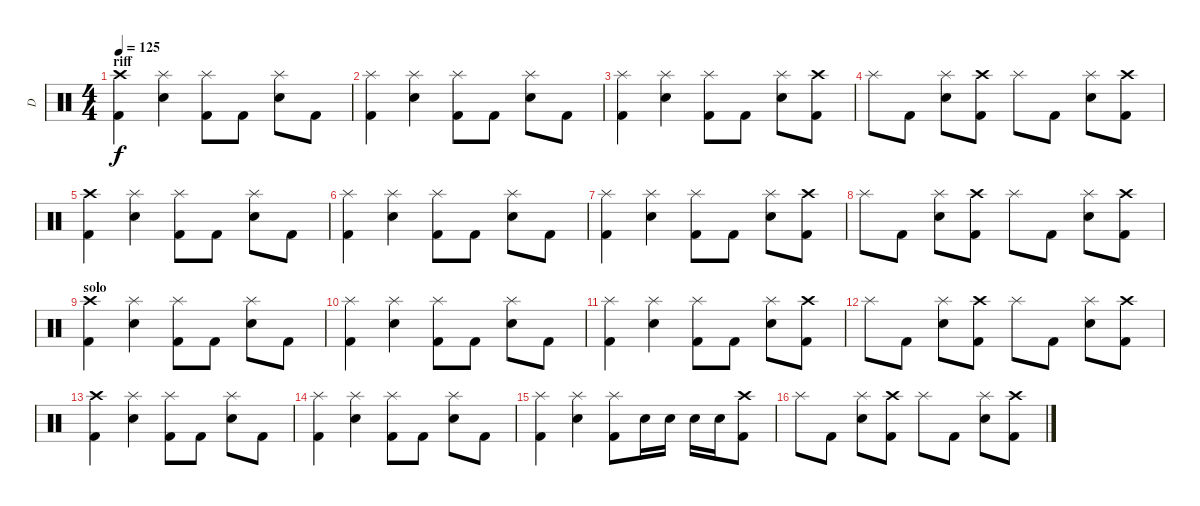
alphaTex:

\track ("D" "D") {instrument percussion}
\staff {score}
\articulation defaults
\ts (4 4)
\section ("" "riff")
\tempo 125
\clef neutral
\ks c
("Crash high (hit)" "Kick (hit) 2").4{dy f} ("Splash (hit)" "Electric Snare (hit)").4 ("Splash (hit)" "Kick (hit) 2").8 "Kick (hit) 2".8 ("Splash (hit)" "Electric Snare (hit)").8 "Kick (hit) 2".8 |
("Splash (hit)" "Kick (hit) 2").4 ("Splash (hit)" "Electric Snare (hit)").4 ("Splash (hit)" "Kick (hit) 2").8 "Kick (hit) 2".8 ("Splash (hit)" "Electric Snare (hit)").8 "Kick (hit) 2".8 |
("Splash (hit)" "Kick (hit) 2").4 ("Splash (hit)" "Electric Snare (hit)").4 ("Splash (hit)" "Kick (hit) 2").8 "Kick (hit) 2".8 ("Splash (hit)" "Electric Snare (hit)").8 ("Crash high (hit)" "Kick (hit) 2").8 |
"Splash (hit)".8 "Kick (hit) 2".8 ("Splash (hit)" "Electric Snare (hit)").8 ("Crash high (hit)" "Kick (hit) 2").8 "Splash (hit)".8 "Kick (hit) 2".8 ("Splash (hit)" "Electric Snare (hit)").8 ("Crash high (hit)" "Kick (hit) 2").8 |
("Crash high (hit)" "Kick (hit) 2").4 ("Splash (hit)" "Electric Snare (hit)").4 ("Splash (hit)" "Kick (hit) 2").8 "Kick (hit) 2".8 ("Splash (hit)" "Electric Snare (hit)").8 "Kick (hit) 2".8 |
("Splash (hit)" "Kick (hit) 2").4 ("Splash (hit)" "Electric Snare (hit)").4 ("Splash (hit)" "Kick (hit) 2").8 "Kick (hit) 2".8 ("Splash (hit)" "Electric Snare (hit)").8 "Kick (hit) 2".8 |
("Splash (hit)" "Kick (hit) 2").4 ("Splash (hit)" "Electric Snare (hit)").4 ("Splash (hit)" "Kick (hit) 2").8 "Kick (hit) 2".8 ("Splash (hit)" "Electric Snare (hit)").8 ("Crash high (hit)" "Kick (hit) 2").8 |
"Splash (hit)".8 "Kick (hit) 2".8 ("Splash (hit)" "Electric Snare (hit)").8 ("Crash high (hit)" "Kick (hit) 2").8 "Splash (hit)".8 "Kick (hit) 2".8 ("Splash (hit)" "Electric Snare (hit)").8 ("Crash high (hit)" "Kick (hit) 2").8 |
\section ("" "solo")
("Crash high (hit)" "Kick (hit) 2").4 ("Splash (hit)" "Electric Snare (hit)").4 ("Splash (hit)" "Kick (hit) 2").8 "Kick (hit) 2".8 ("Splash (hit)" "Electric Snare (hit)").8 "Kick (hit) 2".8 |
("Splash (hit)" "Kick (hit) 2").4 ("Splash (hit)" "Electric Snare (hit)").4 ("Splash (hit)" "Kick (hit) 2").8 "Kick (hit) 2".8 ("Splash (hit)" "Electric Snare (hit)").8 "Kick (hit) 2".8 |
("Splash (hit)" "Kick (hit) 2").4 ("Splash (hit)" "Electric Snare (hit)").4 ("Splash (hit)" "Kick (hit) 2").8 "Kick (hit) 2".8 ("Splash (hit)" "Electric Snare (hit)").8 ("Crash high (hit)" "Kick (hit) 2").8 |
"Splash (hit)".8 "Kick (hit) 2".8 ("Splash (hit)" "Electric Snare (hit)").8 ("Crash high (hit)" "Kick (hit) 2").8 "Splash (hit)".8 "Kick (hit) 2".8 ("Splash (hit)" "Electric Snare (hit)").8 ("Crash high (hit)" "Kick (hit) 2").8 |
("Crash high (hit)" "Kick (hit) 2").4 ("Splash (hit)" "Electric Snare (hit)").4 ("Splash (hit)" "Kick (hit) 2").8 "Kick (hit) 2".8 ("Splash (hit)" "Electric Snare (hit)").8 "Kick (hit) 2".8 |
("Splash (hit)" "Kick (hit) 2").4 ("Splash (hit)" "Electric Snare (hit)").4 ("Splash (hit)" "Kick (hit) 2").8 "Kick (hit) 2".8 ("Splash (hit)" "Electric Snare (hit)").8 "Kick (hit) 2".8 |
("Splash (hit)" "Kick (hit) 2").4 ("Splash (hit)" "Electric Snare (hit)").4 ("Splash (hit)" "Kick (hit) 2").8 "Electric Snare (hit)".16 "Electric Snare (hit)".16 "Electric Snare (hit)".16 "Electric Snare (hit)".16 ("Crash high (hit)" "Kick (hit) 2").8 |
"Splash (hit)".8 "Kick (hit) 2".8 ("Splash (hit)" "Electric Snare (hit)").8 ("Crash high (hit)" "Kick (hit) 2").8 "Splash (hit)".8 "Kick (hit) 2".8 ("Splash (hit)" "Electric Snare (hit)").8 ("Crash high (hit)" "Kick (hit) 2").8
